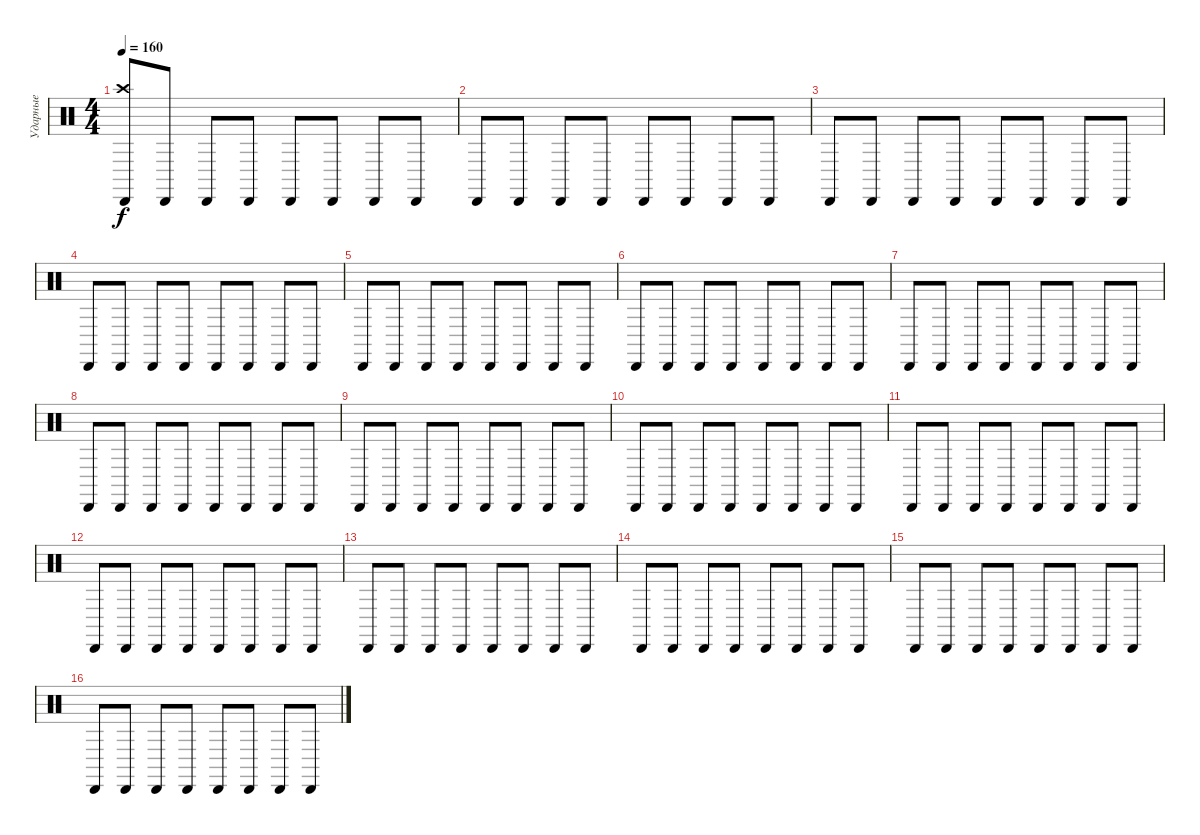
\track ("Ударные" "Ударные") {instrument percussion}
\staff {score}
\articulation defaults
\ts (4 4)
\tempo 160
\clef neutral
\ks c
("Cabasa (hit)" "Crash high (hit)").8{dy f} "Cabasa (hit)".8 "Cabasa (hit)".8 "Cabasa (hit)".8 "Cabasa (hit)".8 "Cabasa (hit)".8 "Cabasa (hit)".8 "Cabasa (hit)".8 |
"Cabasa (hit)".8 "Cabasa (hit)".8 "Cabasa (hit)".8 "Cabasa (hit)".8 "Cabasa (hit)".8 "Cabasa (hit)".8 "Cabasa (hit)".8 "Cabasa (hit)".8 |
"Cabasa (hit)".8 "Cabasa (hit)".8 "Cabasa (hit)".8 "Cabasa (hit)".8 "Cabasa (hit)".8 "Cabasa (hit)".8 "Cabasa (hit)".8 "Cabasa (hit)".8 |
"Cabasa (hit)".8 "Cabasa (hit)".8 "Cabasa (hit)".8 "Cabasa (hit)".8 "Cabasa (hit)".8 "Cabasa (hit)".8 "Cabasa (hit)".8 "Cabasa (hit)".8 |
"Cabasa (hit)".8 "Cabasa (hit)".8 "Cabasa (hit)".8 "Cabasa (hit)".8 "Cabasa (hit)".8 "Cabasa (hit)".8 "Cabasa (hit)".8 "Cabasa (hit)".8 |
"Cabasa (hit)".8 "Cabasa (hit)".8 "Cabasa (hit)".8 "Cabasa (hit)".8 "Cabasa (hit)".8 "Cabasa (hit)".8 "Cabasa (hit)".8 "Cabasa (hit)".8 |
"Cabasa (hit)".8 "Cabasa (hit)".8 "Cabasa (hit)".8 "Cabasa (hit)".8 "Cabasa (hit)".8 "Cabasa (hit)".8 "Cabasa (hit)".8 "Cabasa (hit)".8 |
"Cabasa (hit)".8 "Cabasa (hit)".8 "Cabasa (hit)".8 "Cabasa (hit)".8 "Cabasa (hit)".8 "Cabasa (hit)".8 "Cabasa (hit)".8 "Cabasa (hit)".8 |
"Cabasa (hit)".8 "Cabasa (hit)".8 "Cabasa (hit)".8 "Cabasa (hit)".8 "Cabasa (hit)".8 "Cabasa (hit)".8 "Cabasa (hit)".8 "Cabasa (hit)".8 |
"Cabasa (hit)".8 "Cabasa (hit)".8 "Cabasa (hit)".8 "Cabasa (hit)".8 "Cabasa (hit)".8 "Cabasa (hit)".8 "Cabasa (hit)".8 "Cabasa (hit)".8 |
"Cabasa (hit)".8 "Cabasa (hit)".8 "Cabasa (hit)".8 "Cabasa (hit)".8 "Cabasa (hit)".8 "Cabasa (hit)".8 "Cabasa (hit)".8 "Cabasa (hit)".8 |
"Cabasa (hit)".8 "Cabasa (hit)".8 "Cabasa (hit)".8 "Cabasa (hit)".8 "Cabasa (hit)".8 "Cabasa (hit)".8 "Cabasa (hit)".8 "Cabasa (hit)".8 |
"Cabasa (hit)".8 "Cabasa (hit)".8 "Cabasa (hit)".8 "Cabasa (hit)".8 "Cabasa (hit)".8 "Cabasa (hit)".8 "Cabasa (hit)".8 "Cabasa (hit)".8 |
"Cabasa (hit)".8 "Cabasa (hit)".8 "Cabasa (hit)".8 "Cabasa (hit)".8 "Cabasa (hit)".8 "Cabasa (hit)".8 "Cabasa (hit)".8 "Cabasa (hit)".8 |
"Cabasa (hit)".8 "Cabasa (hit)".8 "Cabasa (hit)".8 "Cabasa (hit)".8 "Cabasa (hit)".8 "Cabasa (hit)".8 "Cabasa (hit)".8 "Cabasa (hit)".8 |
"Cabasa (hit)".8 "Cabasa (hit)".8 "Cabasa (hit)".8 "Cabasa (hit)".8 "Cabasa (hit)".8 "Cabasa (hit)".8 "Cabasa (hit)".8 "Cabasa (hit)".8
